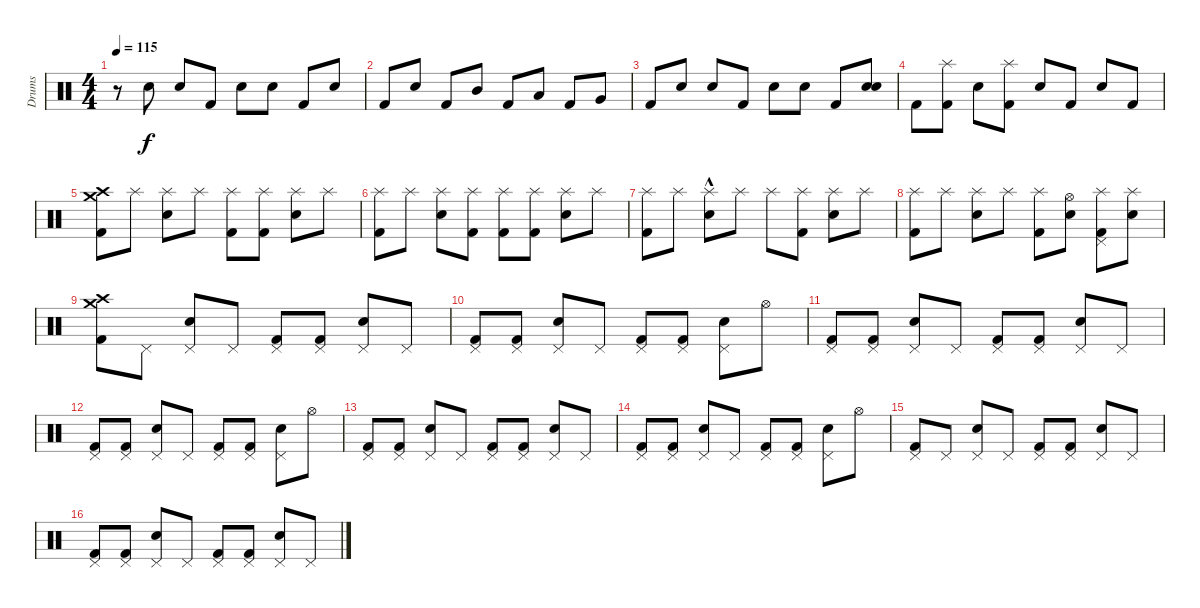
\track ("Drums" "Drums") {instrument percussion}
\staff {score}
\articulation defaults
\ts (4 4)
\tempo 115
\clef neutral
\ks c
r.8{dy f} "Snare (hit) 2".8 "Snare (hit) 2".8 "Kick (hit) 2".8 "Snare (hit) 2".8 "Snare (hit) 2".8 "Kick (hit) 2".8 "Snare (hit) 2".8 |
"Kick (hit) 2".8 "Snare (hit) 2".8 "Kick (hit) 2".8 "Mid Tom (hit)".8 "Kick (hit) 2".8 "Low Tom (hit)".8 "Kick (hit) 2".8 "Very Low Tom (hit)".8 |
"Kick (hit) 2".8 "Snare (hit) 2".8 "Snare (hit) 2".8 "Kick (hit) 2".8 "Snare (hit) 2".8 "Snare (hit) 2".8 "Kick (hit) 2".8 ("Snare (hit) 2" "Electric Snare (hit)").8 |
"Kick (hit) 2".8 ("Kick (hit) 2" "Splash (hit)").8 "Snare (hit) 2".8 ("Kick (hit) 2" "Splash (hit)").8 "Snare (hit) 2".8 "Kick (hit) 2".8 "Snare (hit) 2".8 "Kick (hit) 2".8 |
("Crash medium (hit)" "Crash high (hit)" "Kick (hit) 2").8 "Splash (hit)".8 ("Splash (hit)" "Snare (hit) 2").8 "Splash (hit)".8 ("Splash (hit)" "Kick (hit) 2").8 ("Splash (hit)" "Kick (hit) 2").8 ("Splash (hit)" "Snare (hit) 2").8 "Splash (hit)".8 |
("Splash (hit)" "Kick (hit) 2").8 "Splash (hit)".8 ("Splash (hit)" "Snare (hit) 2").8 ("Splash (hit)" "Kick (hit) 2").8 ("Splash (hit)" "Kick (hit) 2").8 ("Splash (hit)" "Kick (hit) 2").8 ("Splash (hit)" "Snare (hit) 2").8 "Splash (hit)".8 |
("Splash (hit)" "Kick (hit) 2").8 "Splash (hit)".8 ("Splash (hit)" "Snare (hit) 2"{hac}).8 "Splash (hit)".8 "Splash (hit)".8 ("Kick (hit) 2" "Splash (hit)").8 ("Splash (hit)" "Snare (hit) 2").8 "Splash (hit)".8 |
("Kick (hit) 2" "Splash (hit)").8 "Splash (hit)".8 ("Snare (hit) 2" "Splash (hit)").8 "Splash (hit)".8 ("Kick (hit) 2" "Splash (hit)").8 ("Hi-Hat (open)" "Snare (hit) 2").8 ("Pedal Hi-Hat (hit)" "Kick (hit) 2" "Splash (hit)").8 ("Splash (hit)" "Snare (hit) 2").8 |
("Kick (hit) 2" "Crash high (hit)" "Crash medium (hit)").8 "Pedal Hi-Hat (hit)".8 ("Pedal Hi-Hat (hit)" "Snare (hit) 2").8 "Pedal Hi-Hat (hit)".8 ("Pedal Hi-Hat (hit)" "Kick (hit) 2").8 ("Pedal Hi-Hat (hit)" "Kick (hit) 2").8 ("Pedal Hi-Hat (hit)" "Snare (hit) 2").8 "Pedal Hi-Hat (hit)".8 |
("Pedal Hi-Hat (hit)" "Kick (hit) 2").8 ("Pedal Hi-Hat (hit)" "Kick (hit) 2").8 ("Pedal Hi-Hat (hit)" "Snare (hit) 2").8 "Pedal Hi-Hat (hit)".8 ("Pedal Hi-Hat (hit)" "Kick (hit) 2").8 ("Pedal Hi-Hat (hit)" "Kick (hit) 2").8 ("Pedal Hi-Hat (hit)" "Snare (hit) 2").8 "Hi-Hat (open)".8 |
("Pedal Hi-Hat (hit)" "Kick (hit) 2").8 ("Pedal Hi-Hat (hit)" "Kick (hit) 2").8 ("Snare (hit) 2" "Pedal Hi-Hat (hit)").8 "Pedal Hi-Hat (hit)".8 ("Pedal Hi-Hat (hit)" "Kick (hit) 2").8 ("Pedal Hi-Hat (hit)" "Kick (hit) 2").8 ("Snare (hit) 2" "Pedal Hi-Hat (hit)").8 "Pedal Hi-Hat (hit)".8 |
("Pedal Hi-Hat (hit)" "Kick (hit) 2").8 ("Pedal Hi-Hat (hit)" "Kick (hit) 2").8 ("Snare (hit) 2" "Pedal Hi-Hat (hit)").8 "Pedal Hi-Hat (hit)".8 ("Pedal Hi-Hat (hit)" "Kick (hit) 2").8 ("Pedal Hi-Hat (hit)" "Kick (hit) 2").8 ("Snare (hit) 2" "Pedal Hi-Hat (hit)").8 "Hi-Hat (open)".8 |
("Kick (hit) 2" "Pedal Hi-Hat (hit)").8 ("Kick (hit) 2" "Pedal Hi-Hat (hit)").8 ("Snare (hit) 2" "Pedal Hi-Hat (hit)").8 "Pedal Hi-Hat (hit)".8 ("Kick (hit) 2" "Pedal Hi-Hat (hit)").8 ("Kick (hit) 2" "Pedal Hi-Hat (hit)").8 ("Snare (hit) 2" "Pedal Hi-Hat (hit)").8 "Pedal Hi-Hat (hit)".8 |
("Pedal Hi-Hat (hit)" "Kick (hit) 2").8 ("Pedal Hi-Hat (hit)" "Kick (hit) 2").8 ("Snare (hit) 2" "Pedal Hi-Hat (hit)").8 "Pedal Hi-Hat (hit)".8 ("Kick (hit) 2" "Pedal Hi-Hat (hit)").8 ("Kick (hit) 2" "Pedal Hi-Hat (hit)").8 ("Snare (hit) 2" "Pedal Hi-Hat (hit)").8 "Hi-Hat (open)".8 |
("Pedal Hi-Hat (hit)" "Kick (hit) 2").8 "Pedal Hi-Hat (hit)".8 ("Pedal Hi-Hat (hit)" "Snare (hit) 2").8 "Pedal Hi-Hat (hit)".8 ("Pedal Hi-Hat (hit)" "Kick (hit) 2").8 ("Pedal Hi-Hat (hit)" "Kick (hit) 2").8 ("Pedal Hi-Hat (hit)" "Snare (hit) 2").8 "Pedal Hi-Hat (hit)".8 |
("Pedal Hi-Hat (hit)" "Kick (hit) 2").8 ("Pedal Hi-Hat (hit)" "Kick (hit) 2").8 ("Snare (hit) 2" "Pedal Hi-Hat (hit)").8 "Pedal Hi-Hat (hit)".8 ("Pedal Hi-Hat (hit)" "Kick (hit) 2").8 ("Pedal Hi-Hat (hit)" "Kick (hit) 2").8 ("Snare (hit) 2" "Pedal Hi-Hat (hit)").8 "Pedal Hi-Hat (hit)".8
